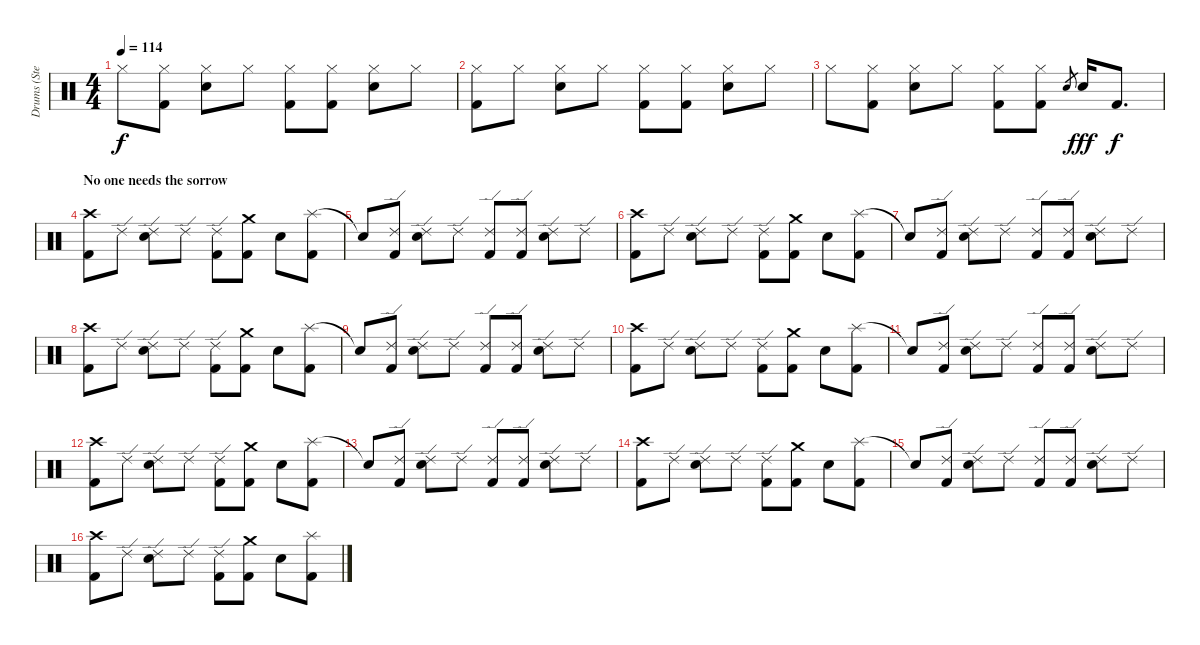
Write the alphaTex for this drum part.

\track ("Drums (Steven)" "Drums (Ste") {instrument percussion}
\staff {score}
\articulation defaults
\ts (4 4)
\tempo 114
\clef neutral
\ks c "Hi-Hat (closed)".8{dy f}
("Hi-Hat (closed)" "Kick (hit) 2").8 ("Hi-Hat (closed)" "Snare (hit) 2").8 "Hi-Hat (closed)".8 ("Hi-Hat (closed)" "Kick (hit) 2").8 ("Hi-Hat (closed)" "Kick (hit) 2").8 ("Hi-Hat (closed)" "Snare (hit) 2").8 "Hi-Hat (closed)".8 |
("Hi-Hat (closed)" "Kick (hit) 2").8 "Hi-Hat (closed)".8 ("Hi-Hat (closed)" "Snare (hit) 2").8 "Hi-Hat (closed)".8 ("Hi-Hat (closed)" "Kick (hit) 2").8 ("Hi-Hat (closed)" "Kick (hit) 2").8 ("Hi-Hat (closed)" "Snare (hit) 2").8 "Hi-Hat (closed)".8 |
"Hi-Hat (closed)".8 ("Hi-Hat (closed)" "Kick (hit) 2").8 ("Hi-Hat (closed)" "Snare (hit) 2").8 "Hi-Hat (closed)".8 ("Hi-Hat (closed)" "Kick (hit) 2").8 ("Hi-Hat (closed)" "Kick (hit) 2").8 "Snare (hit) 2".8{gr} "Snare (hit) 2".16{dy fff} "Kick (hit) 2".8{d dy f} |
\section ("" "No one needs the sorrow")
("Crash high (hit)" "Kick (hit) 2").8 "Ride (edge) 2".8 ("Ride (edge) 2" "Snare (hit) 2").8 "Ride (edge) 2".8 ("Ride (edge) 2" "Kick (hit) 2").8 ("Crash medium (hit)" "Kick (hit) 2").8 "Snare (hit) 2".8 ("Splash (hit)" "Kick (hit) 2").8 |
"Snare (hit)"{t}.8 ("Ride (edge) 2" "Kick (hit) 2").8 ("Ride (edge) 2" "Snare (hit) 2").8 "Ride (edge) 2".8 ("Ride (edge) 2" "Kick (hit) 2").8 ("Ride (edge) 2" "Kick (hit) 2").8 ("Ride (edge) 2" "Snare (hit) 2").8 "Ride (edge) 2".8 |
("Crash high (hit)" "Kick (hit) 2").8 "Ride (edge) 2".8 ("Ride (edge) 2" "Snare (hit) 2").8 "Ride (edge) 2".8 ("Ride (edge) 2" "Kick (hit) 2").8 ("Crash medium (hit)" "Kick (hit) 2").8 "Snare (hit) 2".8 ("Splash (hit)" "Kick (hit) 2").8 |
"Snare (hit)"{t}.8 ("Ride (edge) 2" "Kick (hit) 2").8 ("Ride (edge) 2" "Snare (hit) 2").8 "Ride (edge) 2".8 ("Ride (edge) 2" "Kick (hit) 2").8 ("Ride (edge) 2" "Kick (hit) 2").8 ("Ride (edge) 2" "Snare (hit) 2").8 "Ride (edge) 2".8 |
("Crash high (hit)" "Kick (hit) 2").8 "Ride (edge) 2".8 ("Ride (edge) 2" "Snare (hit) 2").8 "Ride (edge) 2".8 ("Ride (edge) 2" "Kick (hit) 2").8 ("Crash medium (hit)" "Kick (hit) 2").8 "Snare (hit) 2".8 ("Splash (hit)" "Kick (hit) 2").8 |
"Snare (hit)"{t}.8 ("Ride (edge) 2" "Kick (hit) 2").8 ("Ride (edge) 2" "Snare (hit) 2").8 "Ride (edge) 2".8 ("Ride (edge) 2" "Kick (hit) 2").8 ("Ride (edge) 2" "Kick (hit) 2").8 ("Ride (edge) 2" "Snare (hit) 2").8 "Ride (edge) 2".8 |
("Crash high (hit)" "Kick (hit) 2").8 "Ride (edge) 2".8 ("Ride (edge) 2" "Snare (hit) 2").8 "Ride (edge) 2".8 ("Ride (edge) 2" "Kick (hit) 2").8 ("Crash medium (hit)" "Kick (hit) 2").8 "Snare (hit) 2".8 ("Splash (hit)" "Kick (hit) 2").8 |
"Snare (hit)"{t}.8 ("Ride (edge) 2" "Kick (hit) 2").8 ("Ride (edge) 2" "Snare (hit) 2").8 "Ride (edge) 2".8 ("Ride (edge) 2" "Kick (hit) 2").8 ("Ride (edge) 2" "Kick (hit) 2").8 ("Ride (edge) 2" "Snare (hit) 2").8 "Ride (edge) 2".8 |
("Crash high (hit)" "Kick (hit) 2").8 "Ride (edge) 2".8 ("Ride (edge) 2" "Snare (hit) 2").8 "Ride (edge) 2".8 ("Ride (edge) 2" "Kick (hit) 2").8 ("Crash medium (hit)" "Kick (hit) 2").8 "Snare (hit) 2".8 ("Splash (hit)" "Kick (hit) 2").8 |
"Snare (hit)"{t}.8 ("Ride (edge) 2" "Kick (hit) 2").8 ("Ride (edge) 2" "Snare (hit) 2").8 "Ride (edge) 2".8 ("Ride (edge) 2" "Kick (hit) 2").8 ("Ride (edge) 2" "Kick (hit) 2").8 ("Ride (edge) 2" "Snare (hit) 2").8 "Ride (edge) 2".8 |
("Crash high (hit)" "Kick (hit) 2").8 "Ride (edge) 2".8 ("Ride (edge) 2" "Snare (hit) 2").8 "Ride (edge) 2".8 ("Ride (edge) 2" "Kick (hit) 2").8 ("Crash medium (hit)" "Kick (hit) 2").8 "Snare (hit) 2".8 ("Splash (hit)" "Kick (hit) 2").8 |
"Snare (hit)"{t}.8 ("Ride (edge) 2" "Kick (hit) 2").8 ("Ride (edge) 2" "Snare (hit) 2").8 "Ride (edge) 2".8 ("Ride (edge) 2" "Kick (hit) 2").8 ("Ride (edge) 2" "Kick (hit) 2").8 ("Ride (edge) 2" "Snare (hit) 2").8 "Ride (edge) 2".8 |
("Crash high (hit)" "Kick (hit) 2").8 "Ride (edge) 2".8 ("Ride (edge) 2" "Snare (hit) 2").8 "Ride (edge) 2".8 ("Ride (edge) 2" "Kick (hit) 2").8 ("Crash medium (hit)" "Kick (hit) 2").8 "Snare (hit) 2".8 ("Splash (hit)" "Kick (hit) 2").8
